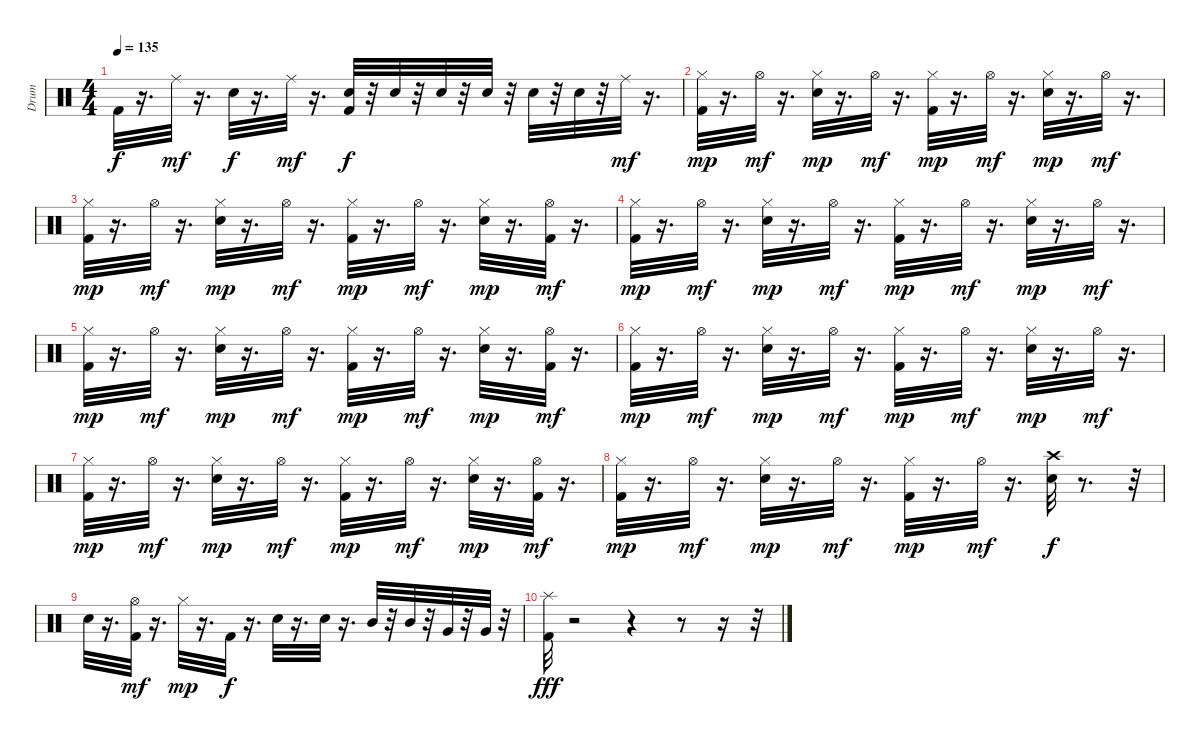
\track ("Drum" "Drum") {instrument percussion}
\staff {score}
\articulation defaults
\ts (4 4)
\tempo 135
\clef neutral
\ks c "Kick (hit) 2".32{dy f}
r.16{d} "Ride (middle)".32{dy mf} r.16{d} "Electric Snare (hit)".32{dy f} r.16{d} "Ride (middle)".32{dy mf} r.16{d} ("Kick (hit) 2" "Electric Snare (hit)").32{dy f} r.32 "Electric Snare (hit)".32 r.32 "Electric Snare (hit)".32 r.32 "Electric Snare (hit)".32 r.32 "Electric Snare (hit)".32 r.32 "Electric Snare (hit)".32 r.32 "Ride (middle)".32{dy mf} r.16{d} |
("Hi-Hat (closed)" "Kick (hit) 2").32{dy mp} r.16{d} "Hi-Hat (open)".32{dy mf volume 12} r.16{d} ("Hi-Hat (closed)" "Electric Snare (hit)").32{dy mp volume 12} r.16{d} "Hi-Hat (open)".32{dy mf volume 12} r.16{d} ("Hi-Hat (closed)" "Kick (hit) 2").32{dy mp volume 12} r.16{d} "Hi-Hat (open)".32{dy mf volume 11} r.16{d} ("Hi-Hat (closed)" "Electric Snare (hit)").32{dy mp volume 11} r.16{d} "Hi-Hat (open)".32{dy mf volume 11} r.16{d} |
("Hi-Hat (closed)" "Kick (hit) 2").32{dy mp volume 11} r.16{d} "Hi-Hat (open)".32{dy mf volume 10} r.16{d} ("Hi-Hat (closed)" "Electric Snare (hit)").32{dy mp volume 10} r.16{d} "Hi-Hat (open)".32{dy mf volume 10} r.16{d} ("Hi-Hat (closed)" "Kick (hit) 2").32{dy mp volume 10} r.16{d} "Hi-Hat (open)".32{dy mf volume 10} r.16{d} ("Hi-Hat (closed)" "Electric Snare (hit)").32{dy mp volume 10} r.16{d} ("Hi-Hat (open)" "Kick (hit) 2").32{dy mf volume 9} r.16{d} |
("Hi-Hat (closed)" "Kick (hit) 2").32{dy mp volume 9} r.16{d} "Hi-Hat (open)".32{dy mf volume 9} r.16{d} ("Hi-Hat (closed)" "Electric Snare (hit)").32{dy mp volume 9} r.16{d} "Hi-Hat (open)".32{dy mf volume 8} r.16{d} ("Hi-Hat (closed)" "Kick (hit) 2").32{dy mp volume 8} r.16{d} "Hi-Hat (open)".32{dy mf volume 8} r.16{d} ("Hi-Hat (closed)" "Electric Snare (hit)").32{dy mp volume 8} r.16{d} "Hi-Hat (open)".32{dy mf volume 8} r.16{d} |
("Hi-Hat (closed)" "Kick (hit) 2").32{dy mp volume 7} r.16{d} "Hi-Hat (open)".32{dy mf volume 7} r.16{d} ("Hi-Hat (closed)" "Electric Snare (hit)").32{dy mp volume 7} r.16{d} "Hi-Hat (open)".32{dy mf volume 7} r.16{d} ("Hi-Hat (closed)" "Kick (hit) 2").32{dy mp volume 7} r.16{d} "Hi-Hat (open)".32{dy mf volume 6} r.16{d} ("Hi-Hat (closed)" "Electric Snare (hit)").32{dy mp volume 6} r.16{d} ("Hi-Hat (open)" "Kick (hit) 2").32{dy mf volume 6} r.16{d} |
("Hi-Hat (closed)" "Kick (hit) 2").32{dy mp volume 6} r.16{d} "Hi-Hat (open)".32{dy mf volume 6} r.16{d} ("Hi-Hat (closed)" "Electric Snare (hit)").32{dy mp volume 5} r.16{d} "Hi-Hat (open)".32{dy mf volume 5} r.16{d} ("Hi-Hat (closed)" "Kick (hit) 2").32{dy mp volume 5} r.16{d} "Hi-Hat (open)".32{dy mf volume 5} r.16{d} ("Hi-Hat (closed)" "Electric Snare (hit)").32{dy mp volume 4} r.16{d} "Hi-Hat (open)".32{dy mf volume 4} r.16{d} |
("Hi-Hat (closed)" "Kick (hit) 2").32{dy mp volume 4} r.16{d} "Hi-Hat (open)".32{dy mf volume 4} r.16{d} ("Hi-Hat (closed)" "Electric Snare (hit)").32{dy mp volume 4} r.16{d} "Hi-Hat (open)".32{dy mf volume 3} r.16{d} ("Hi-Hat (closed)" "Kick (hit) 2").32{dy mp volume 3} r.16{d} "Hi-Hat (open)".32{dy mf volume 3} r.16{d} ("Hi-Hat (closed)" "Electric Snare (hit)").32{dy mp volume 3} r.16{d} ("Hi-Hat (open)" "Kick (hit) 2").32{dy mf volume 3} r.16{d} |
("Hi-Hat (closed)" "Kick (hit) 2").32{dy mp volume 2} r.16{d} "Hi-Hat (open)".32{dy mf volume 2} r.16{d} ("Hi-Hat (closed)" "Electric Snare (hit)").32{dy mp volume 2} r.16{d} "Hi-Hat (open)".32{dy mf volume 2} r.16{d} ("Hi-Hat (closed)" "Kick (hit) 2").32{dy mp volume 2} r.16{d} "Hi-Hat (open)".32{dy mf volume 1} r.16{d} ("Electric Snare (hit)" "Crash high (hit)").32{dy f volume 1} r.8{d} r.32 |
"Electric Snare (hit)".32{volume 0} r.16{d} ("Hi-Hat (open)" "Kick (hit) 2").32{dy mf volume 0} r.16{d} "Hi-Hat (closed)".32{dy mp volume 0} r.16{d} "Kick (hit) 2".32{dy f} r.16{d} "Electric Snare (hit)".32 r.16{d} "Electric Snare (hit)".32 r.16{d} "Mid Tom (hit)".32 r.32 "Mid Tom (hit)".32 r.32 "Very Low Tom (hit)".32 r.32 "Very Low Tom (hit)".32 r.32 |
("Splash (hit)" "Kick (hit) 2").32{dy fff} r.2 r.4 r.8 r.16 r.32
